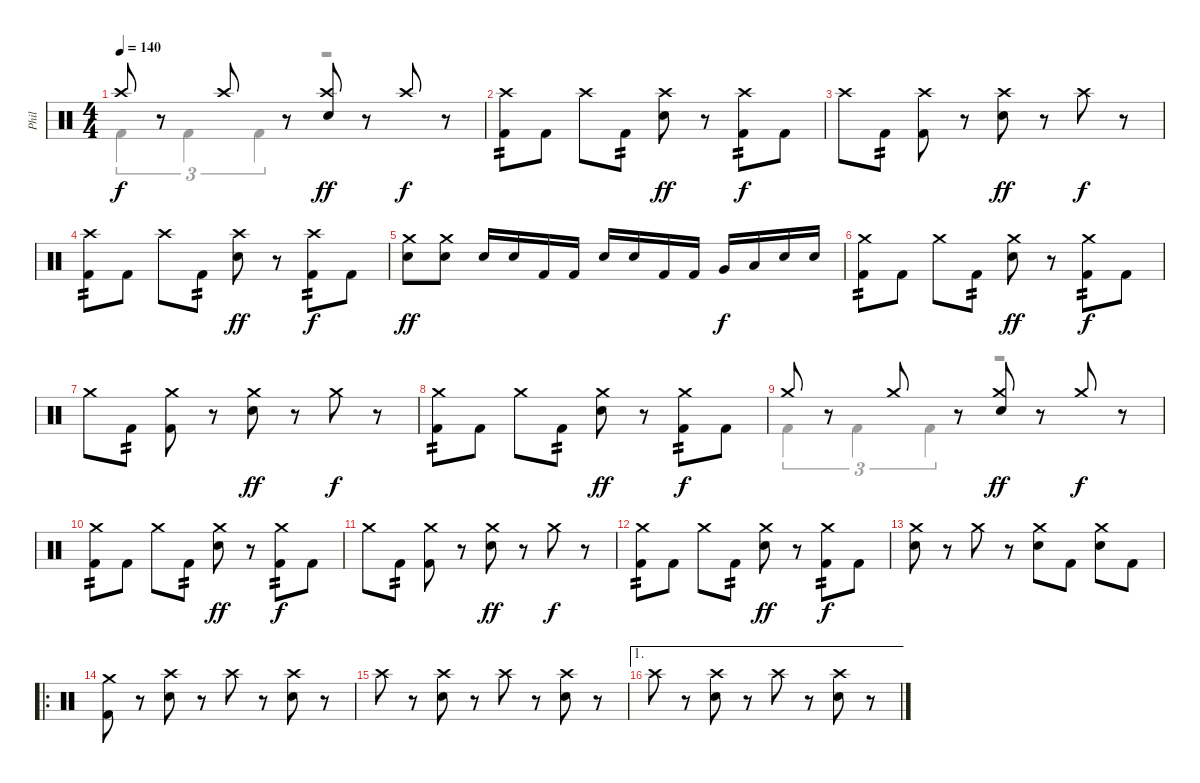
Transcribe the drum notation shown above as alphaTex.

\track ("Phil" "Phil") {instrument percussion}
\staff {score}
\articulation defaults
\voice
\ts (4 4)
\tempo 140
\clef neutral
\ks c "Crash high (hit)".8{dy f}
r.8 "Crash high (hit)".8 r.8 ("Crash high (hit)" "Electric Snare (hit)").8{dy ff} r.8 "Crash high (hit)".8{dy f} r.8 |
("Crash high (hit)" "Kick (hit) 2").8{tp 2} "Kick (hit) 2".8 "Crash high (hit)".8 "Kick (hit) 2".8{tp 2} ("Crash high (hit)" "Electric Snare (hit)").8{dy ff} r.8 ("Crash high (hit)" "Kick (hit) 2").8{tp 2 dy f} "Kick (hit) 2".8 |
"Crash high (hit)".8 "Kick (hit) 2".8{tp 2} ("Crash high (hit)" "Kick (hit) 2").8 r.8 ("Crash high (hit)" "Electric Snare (hit)").8{dy ff} r.8 "Crash high (hit)".8{dy f} r.8 |
("Crash high (hit)" "Kick (hit) 2").8{tp 2} "Kick (hit) 2".8 "Crash high (hit)".8 "Kick (hit) 2".8{tp 2} ("Crash high (hit)" "Electric Snare (hit)").8{dy ff} r.8 ("Crash high (hit)" "Kick (hit) 2").8{tp 2 dy f} "Kick (hit) 2".8 |
("Crash medium (hit)" "Electric Snare (hit)").8{dy ff} ("Crash medium (hit)" "Electric Snare (hit)").8 "Electric Snare (hit)".16 "Electric Snare (hit)".16 "Kick (hit) 2".16 "Kick (hit) 2".16 "Electric Snare (hit)".16 "Electric Snare (hit)".16 "Kick (hit) 2".16 "Kick (hit) 2".16 "Very Low Tom (hit)".16{dy f} "Low Floor Tom (hit)".16 "Electric Snare (hit)".16 "Electric Snare (hit)".16 |
("Crash medium (hit)" "Kick (hit) 2").8{tp 2} "Kick (hit) 2".8 "Crash medium (hit)".8 "Kick (hit) 2".8{tp 2} ("Crash medium (hit)" "Electric Snare (hit)").8{dy ff} r.8 ("Crash medium (hit)" "Kick (hit) 2").8{tp 2 dy f} "Kick (hit) 2".8 |
"Crash medium (hit)".8 "Kick (hit) 2".8{tp 2} ("Crash medium (hit)" "Kick (hit) 2").8 r.8 ("Crash medium (hit)" "Electric Snare (hit)").8{dy ff} r.8 "Crash medium (hit)".8{dy f} r.8 |
("Crash medium (hit)" "Kick (hit) 2").8{tp 2} "Kick (hit) 2".8 "Crash medium (hit)".8 "Kick (hit) 2".8{tp 2} ("Crash medium (hit)" "Electric Snare (hit)").8{dy ff} r.8 ("Crash medium (hit)" "Kick (hit) 2").8{tp 2 dy f} "Kick (hit) 2".8 |
"Crash medium (hit)".8 r.8 "Crash medium (hit)".8 r.8 ("Crash medium (hit)" "Electric Snare (hit)").8{dy ff} r.8 "Crash medium (hit)".8{dy f} r.8 |
("Crash medium (hit)" "Kick (hit) 2").8{tp 2} "Kick (hit) 2".8 "Crash medium (hit)".8 "Kick (hit) 2".8{tp 2} ("Crash medium (hit)" "Electric Snare (hit)").8{dy ff} r.8 ("Crash medium (hit)" "Kick (hit) 2").8{tp 2 dy f} "Kick (hit) 2".8 |
"Crash medium (hit)".8 "Kick (hit) 2".8{tp 2} ("Crash medium (hit)" "Kick (hit) 2").8 r.8 ("Crash medium (hit)" "Electric Snare (hit)").8{dy ff} r.8 "Crash medium (hit)".8{dy f} r.8 |
("Crash medium (hit)" "Kick (hit) 2").8{tp 2} "Kick (hit) 2".8 "Crash medium (hit)".8 "Kick (hit) 2".8{tp 2} ("Crash medium (hit)" "Electric Snare (hit)").8{dy ff} r.8 ("Crash medium (hit)" "Kick (hit) 2").8{tp 2 dy f} "Kick (hit) 2".8 |
("Crash medium (hit)" "Snare (hit) 2").8 r.8 "Crash medium (hit)".8 r.8 ("Crash medium (hit)" "Electric Snare (hit)").8 "Kick (hit) 2".8 ("Crash medium (hit)" "Electric Snare (hit)").8 "Kick (hit) 2".8 |
\ro
("Crash medium (hit)" "Kick (hit) 2").8 r.8 ("Crash high (hit)" "Electric Snare (hit)").8 r.8 "Crash high (hit)".8 r.8 ("Crash high (hit)" "Electric Snare (hit)").8 r.8 |
"Crash high (hit)".8 r.8 ("Crash high (hit)" "Electric Snare (hit)").8 r.8 "Crash high (hit)".8 r.8 ("Crash high (hit)" "Electric Snare (hit)").8 r.8 |
\ae 1 "Crash high (hit)".8
r.8 ("Crash high (hit)" "Electric Snare (hit)").8 r.8 "Crash high (hit)".8 r.8 ("Crash high (hit)" "Electric Snare (hit)").8 r.8
\voice
\clef neutral
\ottava regular
\simile none
\ks c "Kick (hit) 2".4{tu (3 2) dy f} "Kick (hit) 2".4{tu (3 2)} "Kick (hit) 2".4{tu (3 2)}
r.2 |
|
|
|
|
|
|
|
"Kick (hit) 2".4{tu (3 2)} "Kick (hit) 2".4{tu (3 2)} "Kick (hit) 2".4{tu (3 2)} r.2 |
|
|
|
|
|
|
